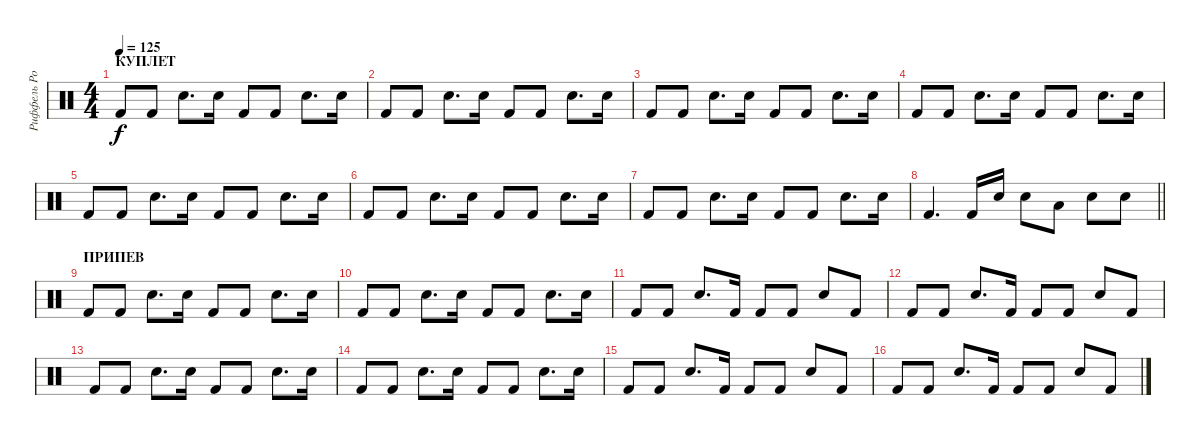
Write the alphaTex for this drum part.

\track ("Риффель Роман(главные)" "Риффель Ро") {instrument percussion}
\staff {score}
\articulation defaults
\ts (4 4)
\section ("" "КУПЛЕТ")
\tempo 125
\clef neutral
\ks c "Kick (hit) 2".8{dy f} "Kick (hit) 2".8 "Electric Snare (hit)".8{d} "Electric Snare (hit)".16 "Kick (hit) 2".8 "Kick (hit) 2".8 "Electric Snare (hit)".8{d} "Electric Snare (hit)".16
|
"Kick (hit) 2".8 "Kick (hit) 2".8 "Electric Snare (hit)".8{d} "Electric Snare (hit)".16 "Kick (hit) 2".8 "Kick (hit) 2".8 "Electric Snare (hit)".8{d} "Electric Snare (hit)".16 |
"Kick (hit) 2".8 "Kick (hit) 2".8 "Electric Snare (hit)".8{d} "Electric Snare (hit)".16 "Kick (hit) 2".8 "Kick (hit) 2".8 "Electric Snare (hit)".8{d} "Electric Snare (hit)".16 |
"Kick (hit) 2".8 "Kick (hit) 2".8 "Electric Snare (hit)".8{d} "Electric Snare (hit)".16 "Kick (hit) 2".8 "Kick (hit) 2".8 "Electric Snare (hit)".8{d} "Electric Snare (hit)".16 |
"Kick (hit) 2".8 "Kick (hit) 2".8 "Electric Snare (hit)".8{d} "Electric Snare (hit)".16 "Kick (hit) 2".8 "Kick (hit) 2".8 "Electric Snare (hit)".8{d} "Electric Snare (hit)".16 |
"Kick (hit) 2".8 "Kick (hit) 2".8 "Electric Snare (hit)".8{d} "Electric Snare (hit)".16 "Kick (hit) 2".8 "Kick (hit) 2".8 "Electric Snare (hit)".8{d} "Electric Snare (hit)".16 |
"Kick (hit) 2".8 "Kick (hit) 2".8 "Electric Snare (hit)".8{d} "Electric Snare (hit)".16 "Kick (hit) 2".8 "Kick (hit) 2".8 "Electric Snare (hit)".8{d} "Electric Snare (hit)".16 |
\barLineRight lightlight "Kick (hit) 2".4{d} "Kick (hit) 2".16 "Electric Snare (hit)".16 "Electric Snare (hit)".8 "Low Tom (hit)".8 "Electric Snare (hit)".8 "Electric Snare (hit)".8
|
\section ("" "ПРИПЕВ")
"Kick (hit) 2".8 "Kick (hit) 2".8 "Electric Snare (hit)".8{d} "Electric Snare (hit)".16 "Kick (hit) 2".8 "Kick (hit) 2".8 "Electric Snare (hit)".8{d} "Electric Snare (hit)".16 |
"Kick (hit) 2".8 "Kick (hit) 2".8 "Electric Snare (hit)".8{d} "Electric Snare (hit)".16 "Kick (hit) 2".8 "Kick (hit) 2".8 "Electric Snare (hit)".8{d} "Electric Snare (hit)".16 |
"Kick (hit) 2".8 "Kick (hit) 2".8 "Electric Snare (hit)".8{d} "Kick (hit) 2".16 "Kick (hit) 2".8 "Kick (hit) 2".8 "Electric Snare (hit)".8 "Kick (hit) 2".8 |
"Kick (hit) 2".8 "Kick (hit) 2".8 "Electric Snare (hit)".8{d} "Kick (hit) 2".16 "Kick (hit) 2".8 "Kick (hit) 2".8 "Electric Snare (hit)".8 "Kick (hit) 2".8 |
"Kick (hit) 2".8 "Kick (hit) 2".8 "Electric Snare (hit)".8{d} "Electric Snare (hit)".16 "Kick (hit) 2".8 "Kick (hit) 2".8 "Electric Snare (hit)".8{d} "Electric Snare (hit)".16 |
"Kick (hit) 2".8 "Kick (hit) 2".8 "Electric Snare (hit)".8{d} "Electric Snare (hit)".16 "Kick (hit) 2".8 "Kick (hit) 2".8 "Electric Snare (hit)".8{d} "Electric Snare (hit)".16 |
"Kick (hit) 2".8 "Kick (hit) 2".8 "Electric Snare (hit)".8{d} "Kick (hit) 2".16 "Kick (hit) 2".8 "Kick (hit) 2".8 "Electric Snare (hit)".8 "Kick (hit) 2".8 |
"Kick (hit) 2".8 "Kick (hit) 2".8 "Electric Snare (hit)".8{d} "Kick (hit) 2".16 "Kick (hit) 2".8 "Kick (hit) 2".8 "Electric Snare (hit)".8 "Kick (hit) 2".8
